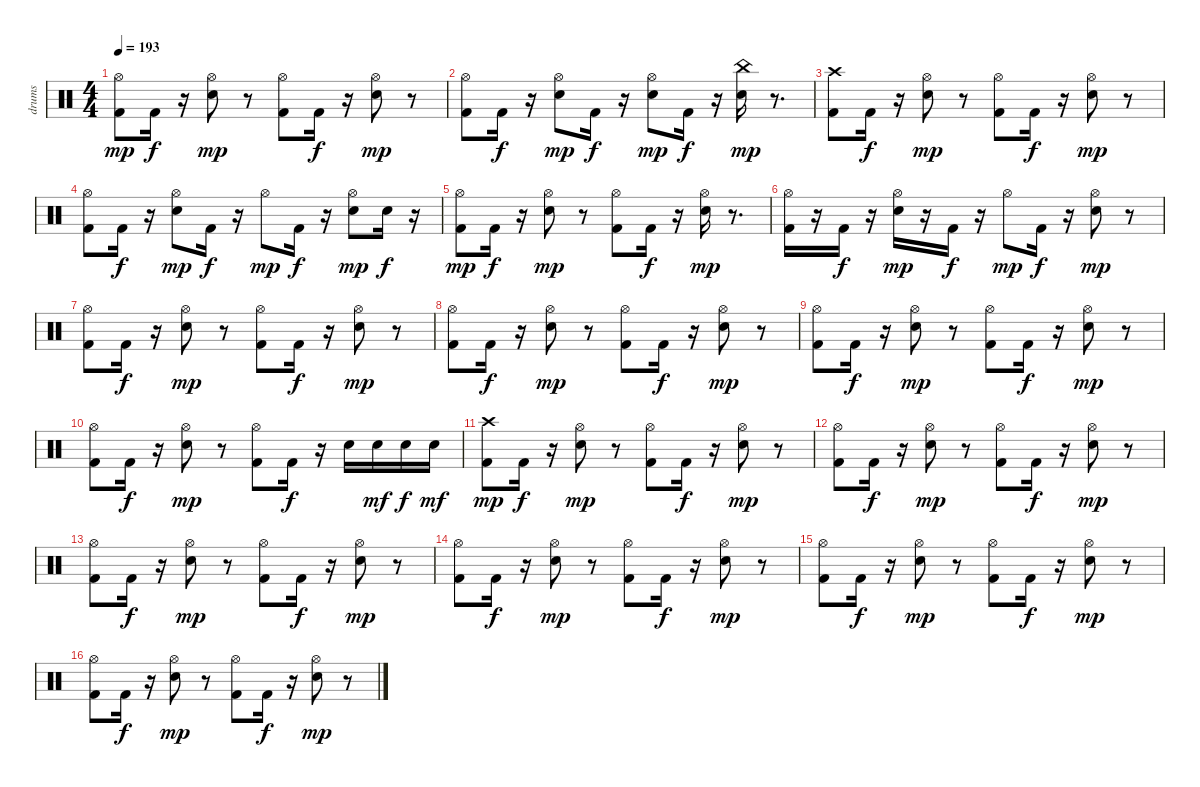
\track ("drums" "drums") {instrument percussion}
\staff {score}
\articulation defaults
\ts (4 4)
\tempo 193
\clef neutral
\ks c
("Kick (hit) 2" "Hi-Hat (open)").8{dy mp} "Kick (hit) 2".16{dy f} r.16 ("Snare (hit) 2" "Hi-Hat (open)").8{dy mp} r.8 ("Kick (hit) 2" "Hi-Hat (open)").8 "Kick (hit) 2".16{dy f} r.16 ("Snare (hit) 2" "Hi-Hat (open)").8{dy mp} r.8 |
("Kick (hit) 2" "Hi-Hat (open)").8 "Kick (hit) 2".16{dy f} r.16 ("Snare (hit) 2" "Hi-Hat (open)").8{dy mp} "Kick (hit) 2".16{dy f} r.16 ("Snare (hit) 2" "Hi-Hat (open)").8{dy mp} "Kick (hit) 2".16{dy f} r.16 ("Snare (hit) 2" "China (hit)").16{dy mp} r.8{d} |
("Kick (hit) 2" "Crash high (hit)").8 "Kick (hit) 2".16{dy f} r.16 ("Snare (hit) 2" "Hi-Hat (open)").8{dy mp} r.8 ("Kick (hit) 2" "Hi-Hat (open)").8 "Kick (hit) 2".16{dy f} r.16 ("Snare (hit) 2" "Hi-Hat (open)").8{dy mp} r.8 |
("Kick (hit) 2" "Hi-Hat (open)").8 "Kick (hit) 2".16{dy f} r.16 ("Snare (hit) 2" "Hi-Hat (open)").8{dy mp} "Kick (hit) 2".16{dy f} r.16 "Hi-Hat (open)".8{dy mp} "Kick (hit) 2".16{dy f} r.16 ("Snare (hit) 2" "Hi-Hat (open)").8{dy mp} "Snare (hit) 2".16{dy f} r.16 |
("Kick (hit) 2" "Hi-Hat (open)").8{dy mp} "Kick (hit) 2".16{dy f} r.16 ("Snare (hit) 2" "Hi-Hat (open)").8{dy mp} r.8 ("Kick (hit) 2" "Hi-Hat (open)").8 "Kick (hit) 2".16{dy f} r.16 ("Snare (hit) 2" "Hi-Hat (open)").16{dy mp} r.8{d} |
("Kick (hit) 2" "Hi-Hat (open)").16 r.16 "Kick (hit) 2".16{dy f} r.16 ("Snare (hit) 2" "Hi-Hat (open)").16{dy mp} r.16 "Kick (hit) 2".16{dy f} r.16 "Hi-Hat (open)".8{dy mp} "Kick (hit) 2".16{dy f} r.16 ("Snare (hit) 2" "Hi-Hat (open)").8{dy mp} r.8 |
("Kick (hit) 2" "Hi-Hat (open)").8 "Kick (hit) 2".16{dy f} r.16 ("Snare (hit) 2" "Hi-Hat (open)").8{dy mp} r.8 ("Kick (hit) 2" "Hi-Hat (open)").8 "Kick (hit) 2".16{dy f} r.16 ("Snare (hit) 2" "Hi-Hat (open)").8{dy mp} r.8 |
("Kick (hit) 2" "Hi-Hat (open)").8 "Kick (hit) 2".16{dy f} r.16 ("Snare (hit) 2" "Hi-Hat (open)").8{dy mp} r.8 ("Kick (hit) 2" "Hi-Hat (open)").8 "Kick (hit) 2".16{dy f} r.16 ("Snare (hit) 2" "Hi-Hat (open)").8{dy mp} r.8 |
("Kick (hit) 2" "Hi-Hat (open)").8 "Kick (hit) 2".16{dy f} r.16 ("Snare (hit) 2" "Hi-Hat (open)").8{dy mp} r.8 ("Kick (hit) 2" "Hi-Hat (open)").8 "Kick (hit) 2".16{dy f} r.16 ("Snare (hit) 2" "Hi-Hat (open)").8{dy mp} r.8 |
("Kick (hit) 2" "Hi-Hat (open)").8 "Kick (hit) 2".16{dy f} r.16 ("Snare (hit) 2" "Hi-Hat (open)").8{dy mp} r.8 ("Kick (hit) 2" "Hi-Hat (open)").8 "Kick (hit) 2".16{dy f} r.16 "Snare (hit) 2".16 "Snare (hit) 2".16{dy mf} "Snare (hit) 2".16{dy f} "Snare (hit) 2".16{dy mf} |
("Kick (hit) 2" "Crash high (hit)").8{dy mp} "Kick (hit) 2".16{dy f} r.16 ("Snare (hit) 2" "Hi-Hat (open)").8{dy mp} r.8 ("Kick (hit) 2" "Hi-Hat (open)").8 "Kick (hit) 2".16{dy f} r.16 ("Snare (hit) 2" "Hi-Hat (open)").8{dy mp} r.8 |
("Kick (hit) 2" "Hi-Hat (open)").8 "Kick (hit) 2".16{dy f} r.16 ("Snare (hit) 2" "Hi-Hat (open)").8{dy mp} r.8 ("Kick (hit) 2" "Hi-Hat (open)").8 "Kick (hit) 2".16{dy f} r.16 ("Snare (hit) 2" "Hi-Hat (open)").8{dy mp} r.8 |
("Kick (hit) 2" "Hi-Hat (open)").8 "Kick (hit) 2".16{dy f} r.16 ("Snare (hit) 2" "Hi-Hat (open)").8{dy mp} r.8 ("Kick (hit) 2" "Hi-Hat (open)").8 "Kick (hit) 2".16{dy f} r.16 ("Snare (hit) 2" "Hi-Hat (open)").8{dy mp} r.8 |
("Kick (hit) 2" "Hi-Hat (open)").8 "Kick (hit) 2".16{dy f} r.16 ("Snare (hit) 2" "Hi-Hat (open)").8{dy mp} r.8 ("Kick (hit) 2" "Hi-Hat (open)").8 "Kick (hit) 2".16{dy f} r.16 ("Snare (hit) 2" "Hi-Hat (open)").8{dy mp} r.8 |
("Kick (hit) 2" "Hi-Hat (open)").8 "Kick (hit) 2".16{dy f} r.16 ("Snare (hit) 2" "Hi-Hat (open)").8{dy mp} r.8 ("Kick (hit) 2" "Hi-Hat (open)").8 "Kick (hit) 2".16{dy f} r.16 ("Snare (hit) 2" "Hi-Hat (open)").8{dy mp} r.8 |
("Kick (hit) 2" "Hi-Hat (open)").8 "Kick (hit) 2".16{dy f} r.16 ("Snare (hit) 2" "Hi-Hat (open)").8{dy mp} r.8 ("Kick (hit) 2" "Hi-Hat (open)").8 "Kick (hit) 2".16{dy f} r.16 ("Snare (hit) 2" "Hi-Hat (open)").8{dy mp} r.8
